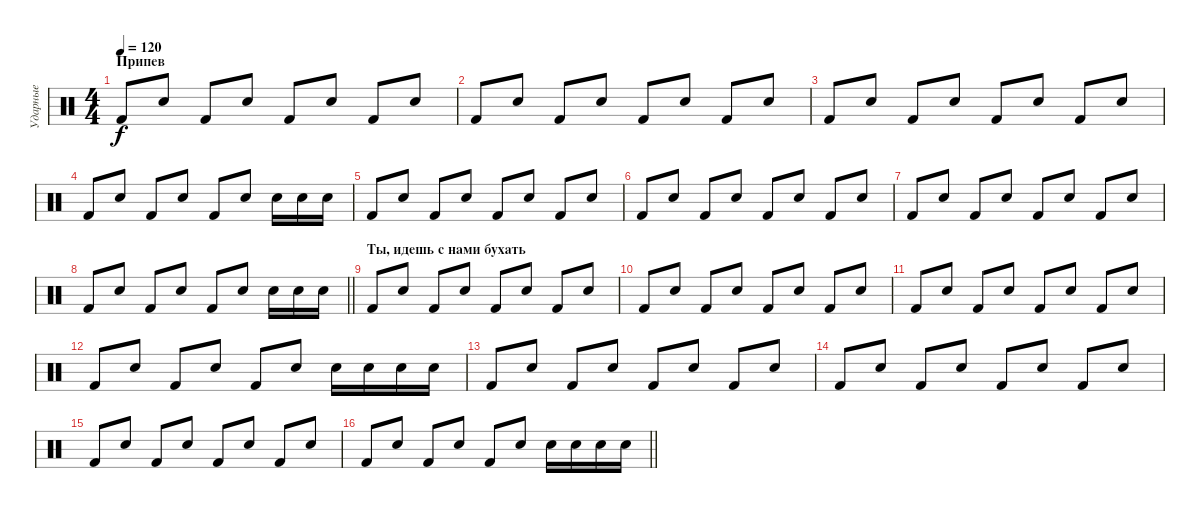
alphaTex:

\track ("Ударные" "Ударные") {instrument percussion}
\staff {score}
\articulation defaults
\ts (4 4)
\section ("" "Припев")
\tempo 120
\clef neutral
\ks c "Kick (hit) 2".8{dy f} "Electric Snare (hit)".8 "Kick (hit) 2".8 "Electric Snare (hit)".8 "Kick (hit) 2".8 "Electric Snare (hit)".8 "Kick (hit) 2".8 "Electric Snare (hit)".8
|
"Kick (hit) 2".8 "Electric Snare (hit)".8 "Kick (hit) 2".8 "Electric Snare (hit)".8 "Kick (hit) 2".8 "Electric Snare (hit)".8 "Kick (hit) 2".8 "Electric Snare (hit)".8 |
"Kick (hit) 2".8 "Electric Snare (hit)".8 "Kick (hit) 2".8 "Electric Snare (hit)".8 "Kick (hit) 2".8 "Electric Snare (hit)".8 "Kick (hit) 2".8 "Electric Snare (hit)".8 |
"Kick (hit) 2".8 "Electric Snare (hit)".8 "Kick (hit) 2".8 "Electric Snare (hit)".8 "Kick (hit) 2".8 "Electric Snare (hit)".8 "Electric Snare (hit)".16 "Electric Snare (hit)".16 "Electric Snare (hit)".16 |
"Kick (hit) 2".8 "Electric Snare (hit)".8 "Kick (hit) 2".8 "Electric Snare (hit)".8 "Kick (hit) 2".8 "Electric Snare (hit)".8 "Kick (hit) 2".8 "Electric Snare (hit)".8 |
"Kick (hit) 2".8 "Electric Snare (hit)".8 "Kick (hit) 2".8 "Electric Snare (hit)".8 "Kick (hit) 2".8 "Electric Snare (hit)".8 "Kick (hit) 2".8 "Electric Snare (hit)".8 |
"Kick (hit) 2".8 "Electric Snare (hit)".8 "Kick (hit) 2".8 "Electric Snare (hit)".8 "Kick (hit) 2".8 "Electric Snare (hit)".8 "Kick (hit) 2".8 "Electric Snare (hit)".8 |
\barLineRight lightlight "Kick (hit) 2".8 "Electric Snare (hit)".8 "Kick (hit) 2".8 "Electric Snare (hit)".8 "Kick (hit) 2".8 "Electric Snare (hit)".8 "Electric Snare (hit)".16 "Electric Snare (hit)".16 "Electric Snare (hit)".16
|
\section ("" "Ты, идешь с нами бухать")
"Kick (hit) 2".8 "Electric Snare (hit)".8 "Kick (hit) 2".8 "Electric Snare (hit)".8 "Kick (hit) 2".8 "Electric Snare (hit)".8 "Kick (hit) 2".8 "Electric Snare (hit)".8 |
"Kick (hit) 2".8 "Electric Snare (hit)".8 "Kick (hit) 2".8 "Electric Snare (hit)".8 "Kick (hit) 2".8 "Electric Snare (hit)".8 "Kick (hit) 2".8 "Electric Snare (hit)".8 |
"Kick (hit) 2".8 "Electric Snare (hit)".8 "Kick (hit) 2".8 "Electric Snare (hit)".8 "Kick (hit) 2".8 "Electric Snare (hit)".8 "Kick (hit) 2".8 "Electric Snare (hit)".8 |
"Kick (hit) 2".8 "Electric Snare (hit)".8 "Kick (hit) 2".8 "Electric Snare (hit)".8 "Kick (hit) 2".8 "Electric Snare (hit)".8 "Electric Snare (hit)".16 "Electric Snare (hit)".16 "Electric Snare (hit)".16 "Electric Snare (hit)".16 |
"Kick (hit) 2".8 "Electric Snare (hit)".8 "Kick (hit) 2".8 "Electric Snare (hit)".8 "Kick (hit) 2".8 "Electric Snare (hit)".8 "Kick (hit) 2".8 "Electric Snare (hit)".8 |
"Kick (hit) 2".8 "Electric Snare (hit)".8 "Kick (hit) 2".8 "Electric Snare (hit)".8 "Kick (hit) 2".8 "Electric Snare (hit)".8 "Kick (hit) 2".8 "Electric Snare (hit)".8 |
"Kick (hit) 2".8 "Electric Snare (hit)".8 "Kick (hit) 2".8 "Electric Snare (hit)".8 "Kick (hit) 2".8 "Electric Snare (hit)".8 "Kick (hit) 2".8 "Electric Snare (hit)".8 |
\barLineRight lightlight "Kick (hit) 2".8 "Electric Snare (hit)".8 "Kick (hit) 2".8 "Electric Snare (hit)".8 "Kick (hit) 2".8 "Electric Snare (hit)".8 "Electric Snare (hit)".16 "Electric Snare (hit)".16 "Electric Snare (hit)".16 "Electric Snare (hit)".16
